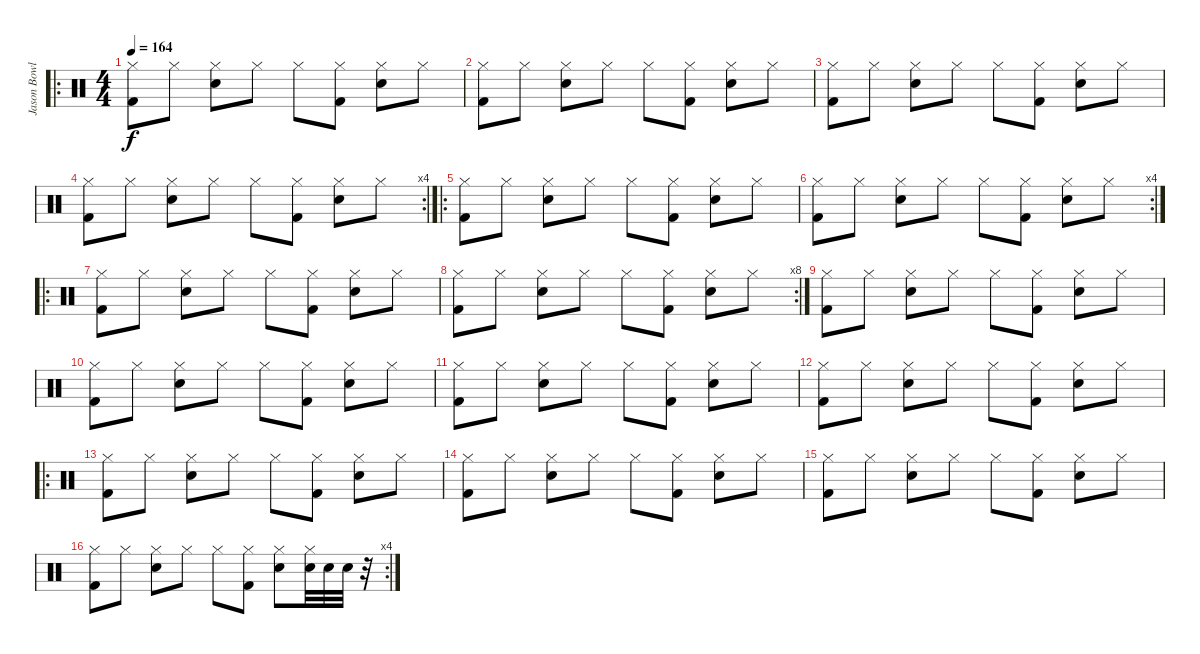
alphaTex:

\track ("Jason Bowld" "Jason Bowl") {instrument percussion}
\staff {score}
\articulation defaults
\ro
\ts (4 4)
\tempo 164
\clef neutral
\ks c
("Hi-Hat (closed)" "Kick (hit) 2").8{dy f} "Hi-Hat (closed)".8 ("Hi-Hat (closed)" "Snare (hit) 2").8 "Hi-Hat (closed)".8 "Hi-Hat (closed)".8 ("Hi-Hat (closed)" "Kick (hit) 2").8 ("Hi-Hat (closed)" "Snare (hit) 2").8 "Hi-Hat (closed)".8 |
("Hi-Hat (closed)" "Kick (hit) 2").8 "Hi-Hat (closed)".8 ("Hi-Hat (closed)" "Snare (hit) 2").8 "Hi-Hat (closed)".8 "Hi-Hat (closed)".8 ("Hi-Hat (closed)" "Kick (hit) 2").8 ("Hi-Hat (closed)" "Snare (hit) 2").8 "Hi-Hat (closed)".8 |
("Hi-Hat (closed)" "Kick (hit) 2").8 "Hi-Hat (closed)".8 ("Hi-Hat (closed)" "Snare (hit) 2").8 "Hi-Hat (closed)".8 "Hi-Hat (closed)".8 ("Hi-Hat (closed)" "Kick (hit) 2").8 ("Hi-Hat (closed)" "Snare (hit) 2").8 "Hi-Hat (closed)".8 |
\rc 4
("Hi-Hat (closed)" "Kick (hit) 2").8 "Hi-Hat (closed)".8 ("Hi-Hat (closed)" "Snare (hit) 2").8 "Hi-Hat (closed)".8 "Hi-Hat (closed)".8 ("Hi-Hat (closed)" "Kick (hit) 2").8 ("Hi-Hat (closed)" "Snare (hit) 2").8 "Hi-Hat (closed)".8 |
\ro
("Hi-Hat (closed)" "Kick (hit) 2").8 "Hi-Hat (closed)".8 ("Hi-Hat (closed)" "Snare (hit) 2").8 "Hi-Hat (closed)".8 "Hi-Hat (closed)".8 ("Hi-Hat (closed)" "Kick (hit) 2").8 ("Hi-Hat (closed)" "Snare (hit) 2").8 "Hi-Hat (closed)".8 |
\rc 4
("Hi-Hat (closed)" "Kick (hit) 2").8 "Hi-Hat (closed)".8 ("Hi-Hat (closed)" "Snare (hit) 2").8 "Hi-Hat (closed)".8 "Hi-Hat (closed)".8 ("Hi-Hat (closed)" "Kick (hit) 2").8 ("Hi-Hat (closed)" "Snare (hit) 2").8 "Hi-Hat (closed)".8 |
\ro
("Hi-Hat (closed)" "Kick (hit) 2").8 "Hi-Hat (closed)".8 ("Hi-Hat (closed)" "Snare (hit) 2").8 "Hi-Hat (closed)".8 "Hi-Hat (closed)".8 ("Hi-Hat (closed)" "Kick (hit) 2").8 ("Hi-Hat (closed)" "Snare (hit) 2").8 "Hi-Hat (closed)".8 |
\rc 8
("Hi-Hat (closed)" "Kick (hit) 2").8 "Hi-Hat (closed)".8 ("Hi-Hat (closed)" "Snare (hit) 2").8 "Hi-Hat (closed)".8 "Hi-Hat (closed)".8 ("Hi-Hat (closed)" "Kick (hit) 2").8 ("Hi-Hat (closed)" "Snare (hit) 2").8 "Hi-Hat (closed)".8 |
("Hi-Hat (closed)" "Kick (hit) 2").8 "Hi-Hat (closed)".8 ("Hi-Hat (closed)" "Snare (hit) 2").8 "Hi-Hat (closed)".8 "Hi-Hat (closed)".8 ("Hi-Hat (closed)" "Kick (hit) 2").8 ("Hi-Hat (closed)" "Snare (hit) 2").8 "Hi-Hat (closed)".8 |
("Hi-Hat (closed)" "Kick (hit) 2").8 "Hi-Hat (closed)".8 ("Hi-Hat (closed)" "Snare (hit) 2").8 "Hi-Hat (closed)".8 "Hi-Hat (closed)".8 ("Hi-Hat (closed)" "Kick (hit) 2").8 ("Hi-Hat (closed)" "Snare (hit) 2").8 "Hi-Hat (closed)".8 |
("Hi-Hat (closed)" "Kick (hit) 2").8 "Hi-Hat (closed)".8 ("Hi-Hat (closed)" "Snare (hit) 2").8 "Hi-Hat (closed)".8 "Hi-Hat (closed)".8 ("Hi-Hat (closed)" "Kick (hit) 2").8 ("Hi-Hat (closed)" "Snare (hit) 2").8 "Hi-Hat (closed)".8 |
("Hi-Hat (closed)" "Kick (hit) 2").8 "Hi-Hat (closed)".8 ("Hi-Hat (closed)" "Snare (hit) 2").8 "Hi-Hat (closed)".8 "Hi-Hat (closed)".8 ("Hi-Hat (closed)" "Kick (hit) 2").8 ("Hi-Hat (closed)" "Snare (hit) 2").8 "Hi-Hat (closed)".8 |
\ro
("Hi-Hat (closed)" "Kick (hit) 2").8 "Hi-Hat (closed)".8 ("Hi-Hat (closed)" "Snare (hit) 2").8 "Hi-Hat (closed)".8 "Hi-Hat (closed)".8 ("Hi-Hat (closed)" "Kick (hit) 2").8 ("Hi-Hat (closed)" "Snare (hit) 2").8 "Hi-Hat (closed)".8 |
("Hi-Hat (closed)" "Kick (hit) 2").8 "Hi-Hat (closed)".8 ("Hi-Hat (closed)" "Snare (hit) 2").8 "Hi-Hat (closed)".8 "Hi-Hat (closed)".8 ("Hi-Hat (closed)" "Kick (hit) 2").8 ("Hi-Hat (closed)" "Snare (hit) 2").8 "Hi-Hat (closed)".8 |
("Hi-Hat (closed)" "Kick (hit) 2").8 "Hi-Hat (closed)".8 ("Hi-Hat (closed)" "Snare (hit) 2").8 "Hi-Hat (closed)".8 "Hi-Hat (closed)".8 ("Hi-Hat (closed)" "Kick (hit) 2").8 ("Hi-Hat (closed)" "Snare (hit) 2").8 "Hi-Hat (closed)".8 |
\rc 4
("Hi-Hat (closed)" "Kick (hit) 2").8 "Hi-Hat (closed)".8 ("Hi-Hat (closed)" "Snare (hit) 2").8 "Hi-Hat (closed)".8 "Hi-Hat (closed)".8 ("Hi-Hat (closed)" "Kick (hit) 2").8 ("Hi-Hat (closed)" "Snare (hit) 2").8 ("Hi-Hat (closed)" "Snare (hit) 2").32 "Snare (hit) 2".32 "Snare (hit) 2".32 r.32
